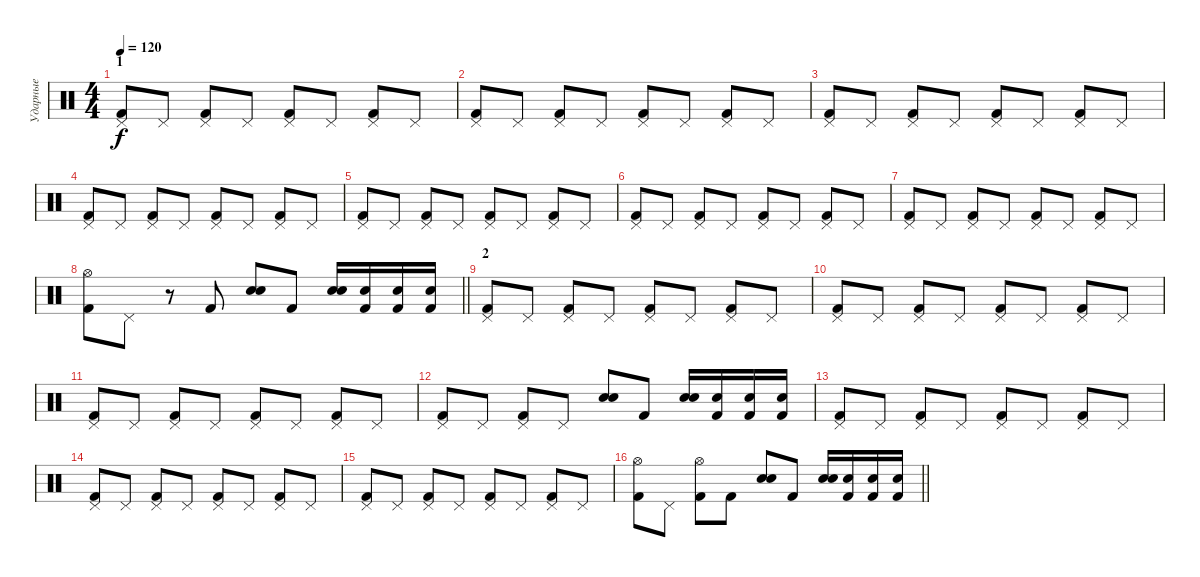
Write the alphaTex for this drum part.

\track ("Ударные" "Ударные") {instrument percussion}
\staff {score}
\articulation defaults
\ts (4 4)
\section ("" "1")
\tempo 120
\clef neutral
\ks c
("Pedal Hi-Hat (hit)" "Kick (hit) 2").8{dy f} "Pedal Hi-Hat (hit)".8 ("Pedal Hi-Hat (hit)" "Kick (hit) 2").8 "Pedal Hi-Hat (hit)".8 ("Pedal Hi-Hat (hit)" "Kick (hit) 2").8 "Pedal Hi-Hat (hit)".8 ("Pedal Hi-Hat (hit)" "Kick (hit) 2").8 "Pedal Hi-Hat (hit)".8 |
("Pedal Hi-Hat (hit)" "Kick (hit) 2").8 "Pedal Hi-Hat (hit)".8 ("Pedal Hi-Hat (hit)" "Kick (hit) 2").8 "Pedal Hi-Hat (hit)".8 ("Pedal Hi-Hat (hit)" "Kick (hit) 2").8 "Pedal Hi-Hat (hit)".8 ("Pedal Hi-Hat (hit)" "Kick (hit) 2").8 "Pedal Hi-Hat (hit)".8 |
("Pedal Hi-Hat (hit)" "Kick (hit) 2").8 "Pedal Hi-Hat (hit)".8 ("Pedal Hi-Hat (hit)" "Kick (hit) 2").8 "Pedal Hi-Hat (hit)".8 ("Pedal Hi-Hat (hit)" "Kick (hit) 2").8 "Pedal Hi-Hat (hit)".8 ("Pedal Hi-Hat (hit)" "Kick (hit) 2").8 "Pedal Hi-Hat (hit)".8 |
("Pedal Hi-Hat (hit)" "Kick (hit) 2").8 "Pedal Hi-Hat (hit)".8 ("Pedal Hi-Hat (hit)" "Kick (hit) 2").8 "Pedal Hi-Hat (hit)".8 ("Pedal Hi-Hat (hit)" "Kick (hit) 2").8 "Pedal Hi-Hat (hit)".8 ("Pedal Hi-Hat (hit)" "Kick (hit) 2").8 "Pedal Hi-Hat (hit)".8 |
("Pedal Hi-Hat (hit)" "Kick (hit) 2").8 "Pedal Hi-Hat (hit)".8 ("Pedal Hi-Hat (hit)" "Kick (hit) 2").8 "Pedal Hi-Hat (hit)".8 ("Pedal Hi-Hat (hit)" "Kick (hit) 2").8 "Pedal Hi-Hat (hit)".8 ("Pedal Hi-Hat (hit)" "Kick (hit) 2").8 "Pedal Hi-Hat (hit)".8 |
("Pedal Hi-Hat (hit)" "Kick (hit) 2").8 "Pedal Hi-Hat (hit)".8 ("Pedal Hi-Hat (hit)" "Kick (hit) 2").8 "Pedal Hi-Hat (hit)".8 ("Pedal Hi-Hat (hit)" "Kick (hit) 2").8 "Pedal Hi-Hat (hit)".8 ("Pedal Hi-Hat (hit)" "Kick (hit) 2").8 "Pedal Hi-Hat (hit)".8 |
("Pedal Hi-Hat (hit)" "Kick (hit) 2").8 "Pedal Hi-Hat (hit)".8 ("Pedal Hi-Hat (hit)" "Kick (hit) 2").8 "Pedal Hi-Hat (hit)".8 ("Pedal Hi-Hat (hit)" "Kick (hit) 2").8 "Pedal Hi-Hat (hit)".8 ("Pedal Hi-Hat (hit)" "Kick (hit) 2").8 "Pedal Hi-Hat (hit)".8 |
\barLineRight lightlight
("Hi-Hat (open)" "Kick (hit) 2").8 "Pedal Hi-Hat (hit)".8 r.8 "Kick (hit) 2".8 ("Snare (hit) 2" "Electric Snare (hit)").8 "Kick (hit) 2".8 ("Snare (hit) 2" "Electric Snare (hit)").16 ("Snare (hit) 2" "Kick (hit) 2").16 ("Snare (hit) 2" "Kick (hit) 2").16 ("Snare (hit) 2" "Kick (hit) 2").16 |
\section ("" "2")
("Pedal Hi-Hat (hit)" "Kick (hit) 2").8 "Pedal Hi-Hat (hit)".8 ("Pedal Hi-Hat (hit)" "Kick (hit) 2").8 "Pedal Hi-Hat (hit)".8 ("Pedal Hi-Hat (hit)" "Kick (hit) 2").8 "Pedal Hi-Hat (hit)".8 ("Pedal Hi-Hat (hit)" "Kick (hit) 2").8 "Pedal Hi-Hat (hit)".8 |
("Pedal Hi-Hat (hit)" "Kick (hit) 2").8 "Pedal Hi-Hat (hit)".8 ("Pedal Hi-Hat (hit)" "Kick (hit) 2").8 "Pedal Hi-Hat (hit)".8 ("Pedal Hi-Hat (hit)" "Kick (hit) 2").8 "Pedal Hi-Hat (hit)".8 ("Pedal Hi-Hat (hit)" "Kick (hit) 2").8 "Pedal Hi-Hat (hit)".8 |
("Pedal Hi-Hat (hit)" "Kick (hit) 2").8 "Pedal Hi-Hat (hit)".8 ("Pedal Hi-Hat (hit)" "Kick (hit) 2").8 "Pedal Hi-Hat (hit)".8 ("Pedal Hi-Hat (hit)" "Kick (hit) 2").8 "Pedal Hi-Hat (hit)".8 ("Pedal Hi-Hat (hit)" "Kick (hit) 2").8 "Pedal Hi-Hat (hit)".8 |
("Pedal Hi-Hat (hit)" "Kick (hit) 2").8 "Pedal Hi-Hat (hit)".8 ("Pedal Hi-Hat (hit)" "Kick (hit) 2").8 "Pedal Hi-Hat (hit)".8 ("Snare (hit) 2" "Electric Snare (hit)").8 "Kick (hit) 2".8 ("Snare (hit) 2" "Electric Snare (hit)").16 ("Snare (hit) 2" "Kick (hit) 2").16 ("Snare (hit) 2" "Kick (hit) 2").16 ("Snare (hit) 2" "Kick (hit) 2").16 |
("Pedal Hi-Hat (hit)" "Kick (hit) 2").8 "Pedal Hi-Hat (hit)".8 ("Pedal Hi-Hat (hit)" "Kick (hit) 2").8 "Pedal Hi-Hat (hit)".8 ("Pedal Hi-Hat (hit)" "Kick (hit) 2").8 "Pedal Hi-Hat (hit)".8 ("Pedal Hi-Hat (hit)" "Kick (hit) 2").8 "Pedal Hi-Hat (hit)".8 |
("Pedal Hi-Hat (hit)" "Kick (hit) 2").8 "Pedal Hi-Hat (hit)".8 ("Pedal Hi-Hat (hit)" "Kick (hit) 2").8 "Pedal Hi-Hat (hit)".8 ("Pedal Hi-Hat (hit)" "Kick (hit) 2").8 "Pedal Hi-Hat (hit)".8 ("Pedal Hi-Hat (hit)" "Kick (hit) 2").8 "Pedal Hi-Hat (hit)".8 |
("Pedal Hi-Hat (hit)" "Kick (hit) 2").8 "Pedal Hi-Hat (hit)".8 ("Pedal Hi-Hat (hit)" "Kick (hit) 2").8 "Pedal Hi-Hat (hit)".8 ("Pedal Hi-Hat (hit)" "Kick (hit) 2").8 "Pedal Hi-Hat (hit)".8 ("Pedal Hi-Hat (hit)" "Kick (hit) 2").8 "Pedal Hi-Hat (hit)".8 |
\barLineRight lightlight
("Hi-Hat (open)" "Kick (hit) 2").8 "Pedal Hi-Hat (hit)".8 ("Hi-Hat (open)" "Kick (hit) 2").8 "Kick (hit) 2".8 ("Snare (hit) 2" "Electric Snare (hit)").8 "Kick (hit) 2".8 ("Snare (hit) 2" "Electric Snare (hit)").16 ("Snare (hit) 2" "Kick (hit) 2").16 ("Snare (hit) 2" "Kick (hit) 2").16 ("Snare (hit) 2" "Kick (hit) 2").16
